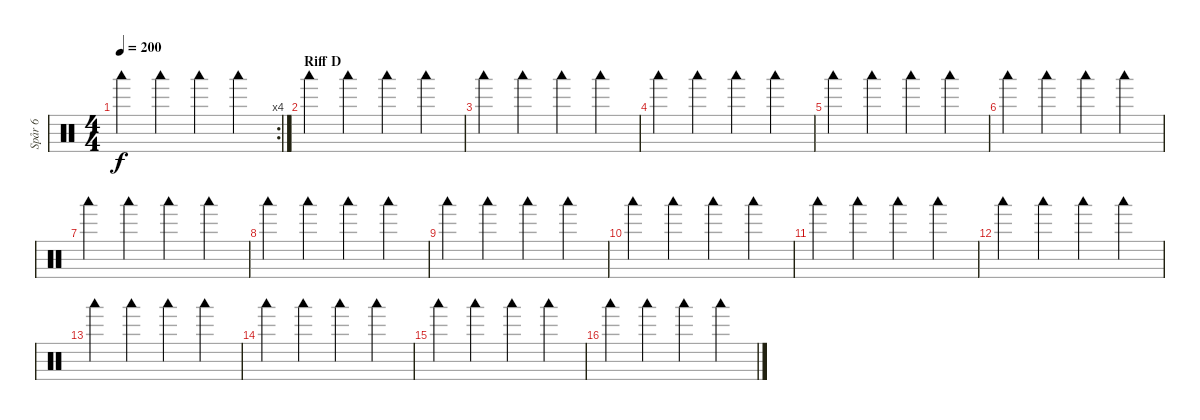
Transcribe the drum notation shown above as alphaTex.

\track ("Spår 6" "Spår 6") {instrument percussion}
\staff {score}
\articulation defaults
\rc 4
\ts (4 4)
\tempo 200
\clef neutral
\ks c "Woodblock low (hit)".4{dy f} "Woodblock low (hit)".4 "Woodblock low (hit)".4 "Woodblock low (hit)".4
|
\section ("" "Riff D")
"Woodblock low (hit)".4 "Woodblock low (hit)".4 "Woodblock low (hit)".4 "Woodblock low (hit)".4 |
"Woodblock low (hit)".4 "Woodblock low (hit)".4 "Woodblock low (hit)".4 "Woodblock low (hit)".4 |
"Woodblock low (hit)".4 "Woodblock low (hit)".4 "Woodblock low (hit)".4 "Woodblock low (hit)".4 |
"Woodblock low (hit)".4 "Woodblock low (hit)".4 "Woodblock low (hit)".4 "Woodblock low (hit)".4 |
"Woodblock low (hit)".4 "Woodblock low (hit)".4 "Woodblock low (hit)".4 "Woodblock low (hit)".4 |
"Woodblock low (hit)".4 "Woodblock low (hit)".4 "Woodblock low (hit)".4 "Woodblock low (hit)".4 |
"Woodblock low (hit)".4 "Woodblock low (hit)".4 "Woodblock low (hit)".4 "Woodblock low (hit)".4 |
"Woodblock low (hit)".4 "Woodblock low (hit)".4 "Woodblock low (hit)".4 "Woodblock low (hit)".4 |
"Woodblock low (hit)".4 "Woodblock low (hit)".4 "Woodblock low (hit)".4 "Woodblock low (hit)".4 |
"Woodblock low (hit)".4 "Woodblock low (hit)".4 "Woodblock low (hit)".4 "Woodblock low (hit)".4 |
"Woodblock low (hit)".4 "Woodblock low (hit)".4 "Woodblock low (hit)".4 "Woodblock low (hit)".4 |
"Woodblock low (hit)".4 "Woodblock low (hit)".4 "Woodblock low (hit)".4 "Woodblock low (hit)".4 |
"Woodblock low (hit)".4 "Woodblock low (hit)".4 "Woodblock low (hit)".4 "Woodblock low (hit)".4 |
"Woodblock low (hit)".4 "Woodblock low (hit)".4 "Woodblock low (hit)".4 "Woodblock low (hit)".4 |
"Woodblock low (hit)".4 "Woodblock low (hit)".4 "Woodblock low (hit)".4 "Woodblock low (hit)".4
